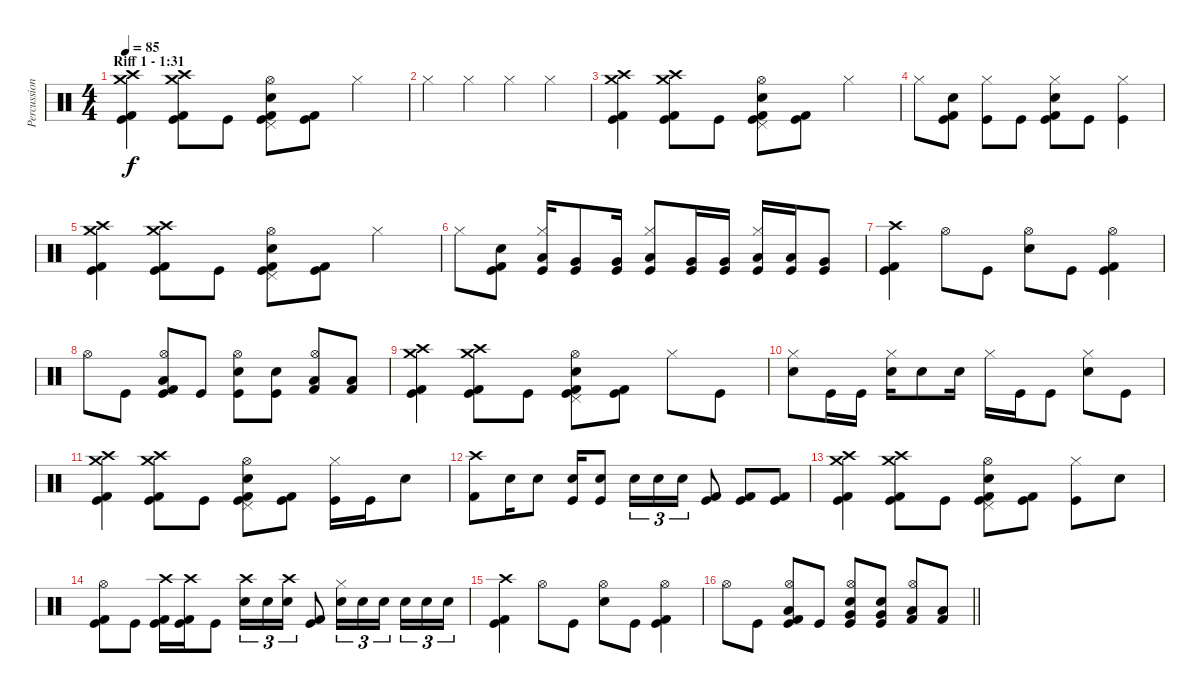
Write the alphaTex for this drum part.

\track ("Percussion" "Percussion") {instrument percussion}
\staff {score}
\articulation defaults
\ts (4 4)
\section ("" "Riff 1 - 1:31")
\tempo 85
\clef neutral
\ks c
("Kick (hit)" "Kick (hit) 2" "Crash high (hit)" "Crash medium (hit)").4{dy f} ("Kick (hit)" "Kick (hit) 2" "Crash high (hit)" "Crash medium (hit)").8 "Kick (hit)".8 ("Kick (hit)" "Kick (hit) 2" "Snare (hit) 2" "Pedal Hi-Hat (hit)" "Hi-Hat (open)").8 ("Kick (hit)" "Kick (hit) 2").8 "Hi-Hat (closed)".4 |
"Hi-Hat (closed)".4 "Hi-Hat (closed)".4 "Hi-Hat (closed)".4 "Hi-Hat (closed)".4 |
("Kick (hit)" "Kick (hit) 2" "Crash high (hit)" "Crash medium (hit)").4 ("Kick (hit)" "Kick (hit) 2" "Crash high (hit)" "Crash medium (hit)").8 "Kick (hit)".8 ("Kick (hit)" "Kick (hit) 2" "Snare (hit) 2" "Pedal Hi-Hat (hit)" "Hi-Hat (open)").8 ("Kick (hit)" "Kick (hit) 2").8 "Hi-Hat (closed)".4 |
"Hi-Hat (closed)".8 ("Kick (hit)" "Kick (hit) 2" "Snare (hit) 2").8 ("Kick (hit)" "Hi-Hat (closed)").8 "Kick (hit)".8 ("Kick (hit)" "Kick (hit) 2" "Snare (hit) 2" "Hi-Hat (closed)").8 "Kick (hit)".8 ("Kick (hit)" "Hi-Hat (closed)").4 |
("Kick (hit)" "Kick (hit) 2" "Crash high (hit)" "Crash medium (hit)").4 ("Kick (hit)" "Kick (hit) 2" "Crash high (hit)" "Crash medium (hit)").8 "Kick (hit)".8 ("Kick (hit)" "Kick (hit) 2" "Snare (hit) 2" "Pedal Hi-Hat (hit)" "Hi-Hat (open)").8 ("Kick (hit)" "Kick (hit) 2").8 "Hi-Hat (closed)".4 |
"Hi-Hat (closed)".8 ("Kick (hit)" "Kick (hit) 2" "Snare (hit) 2").8 ("Kick (hit)" "Low Floor Tom (hit)" "Hi-Hat (closed)").16 ("Kick (hit)" "Very Low Tom (hit)").8 ("Kick (hit)" "Very Low Tom (hit)").16 ("Kick (hit)" "Low Floor Tom (hit)" "Hi-Hat (closed)").8 ("Kick (hit)" "Very Low Tom (hit)").16 ("Kick (hit)" "Very Low Tom (hit)").16 ("Kick (hit)" "Low Floor Tom (hit)" "Hi-Hat (closed)").16 ("Kick (hit)" "Low Floor Tom (hit)").16 ("Kick (hit)" "Very Low Tom (hit)").8 |
("Kick (hit)" "Kick (hit) 2" "Crash high (hit)").4 "Hi-Hat (open)".8 "Kick (hit)".8 ("Snare (hit) 2" "Hi-Hat (open)").8 "Kick (hit)".8 ("Kick (hit)" "Kick (hit) 2" "Hi-Hat (open)").4 |
"Hi-Hat (open)".8 "Kick (hit)".8 ("Kick (hit)" "Kick (hit) 2" "Low Tom (hit)" "Hi-Hat (open)").8 "Kick (hit)".8 ("Kick (hit)" "Snare (hit) 2" "Hi-Hat (open)").8 ("Kick (hit)" "Snare (hit) 2").8 ("Kick (hit) 2" "Low Tom (hit)" "Hi-Hat (open)").8 ("Kick (hit) 2" "Low Tom (hit)").8 |
("Kick (hit)" "Kick (hit) 2" "Crash high (hit)" "Crash medium (hit)").4 ("Kick (hit)" "Kick (hit) 2" "Crash high (hit)" "Crash medium (hit)").8 "Kick (hit)".8 ("Kick (hit)" "Kick (hit) 2" "Snare (hit) 2" "Pedal Hi-Hat (hit)" "Hi-Hat (open)").8 ("Kick (hit)" "Kick (hit) 2").8 "Hi-Hat (closed)".8 "Kick (hit)".8 |
("Snare (hit) 2" "Hi-Hat (closed)").8 "Kick (hit)".16 "Kick (hit)".16 ("Snare (hit) 2" "Hi-Hat (closed)").16 "Snare (hit) 2".8 "Snare (hit) 2".16 "Hi-Hat (closed)".16 "Kick (hit)".16 "Kick (hit)".8 ("Snare (hit) 2" "Hi-Hat (closed)").8 "Kick (hit)".8 |
("Kick (hit)" "Kick (hit) 2" "Crash high (hit)" "Crash medium (hit)").4 ("Kick (hit)" "Kick (hit) 2" "Crash high (hit)" "Crash medium (hit)").8 "Kick (hit)".8 ("Kick (hit)" "Kick (hit) 2" "Snare (hit) 2" "Pedal Hi-Hat (hit)" "Hi-Hat (open)").8 ("Kick (hit)" "Kick (hit) 2").8 ("Kick (hit)" "Hi-Hat (closed)").16 "Kick (hit)".16 "Snare (hit) 2".8 |
("Kick (hit) 2" "Crash high (hit)").8 "Snare (hit) 2".16 "Snare (hit) 2".8 ("Kick (hit)" "Snare (hit) 2").16 ("Kick (hit)" "Snare (hit) 2").8 "Snare (hit) 2".16{tu (3 2)} "Snare (hit) 2".16{tu (3 2)} "Snare (hit) 2".16{tu (3 2)} ("Kick (hit)" "Kick (hit) 2").8 ("Kick (hit)" "Kick (hit) 2").8 ("Kick (hit)" "Kick (hit) 2").8 |
("Kick (hit)" "Kick (hit) 2" "Crash high (hit)" "Crash medium (hit)").4 ("Kick (hit)" "Kick (hit) 2" "Crash high (hit)" "Crash medium (hit)").8 "Kick (hit)".8 ("Kick (hit)" "Kick (hit) 2" "Snare (hit) 2" "Pedal Hi-Hat (hit)" "Hi-Hat (open)").8 ("Kick (hit)" "Kick (hit) 2").8 ("Kick (hit)" "Hi-Hat (closed)").8 "Snare (hit) 2".8 |
("Kick (hit)" "Kick (hit) 2" "Hi-Hat (open)").8 "Kick (hit)".8 ("Kick (hit)" "Kick (hit) 2" "Crash high (hit)").16 ("Kick (hit)" "Kick (hit) 2" "Crash high (hit)").16 "Kick (hit)".8 ("Snare (hit) 2" "Crash high (hit)").16{tu (3 2)} "Snare (hit) 2".16{tu (3 2)} ("Snare (hit) 2" "Crash high (hit)").16{tu (3 2)} ("Kick (hit)" "Kick (hit) 2").8 ("Snare (hit) 2" "Hi-Hat (closed)").16{tu (3 2)} "Snare (hit) 2".16{tu (3 2)} "Snare (hit) 2".16{tu (3 2) beam splitsecondary} "Snare (hit) 2".16{tu (3 2)} "Snare (hit) 2".16{tu (3 2)} "Snare (hit) 2".16{tu (3 2)} |
("Kick (hit)" "Kick (hit) 2" "Crash high (hit)").4 "Hi-Hat (open)".8 "Kick (hit)".8 ("Snare (hit) 2" "Hi-Hat (open)").8 "Kick (hit)".8 ("Kick (hit)" "Kick (hit) 2" "Hi-Hat (open)").4 |
\barLineRight lightlight "Hi-Hat (open)".8 "Kick (hit)".8
("Kick (hit)" "Kick (hit) 2" "Low Tom (hit)" "Hi-Hat (open)").8 "Kick (hit)".8 ("Kick (hit)" "Very Low Tom (hit)" "Snare (hit) 2" "Hi-Hat (open)").8 ("Kick (hit)" "Very Low Tom (hit)" "Snare (hit) 2").8 ("Kick (hit) 2" "Low Tom (hit)" "Hi-Hat (open)").8 ("Kick (hit) 2" "Low Tom (hit)").8
